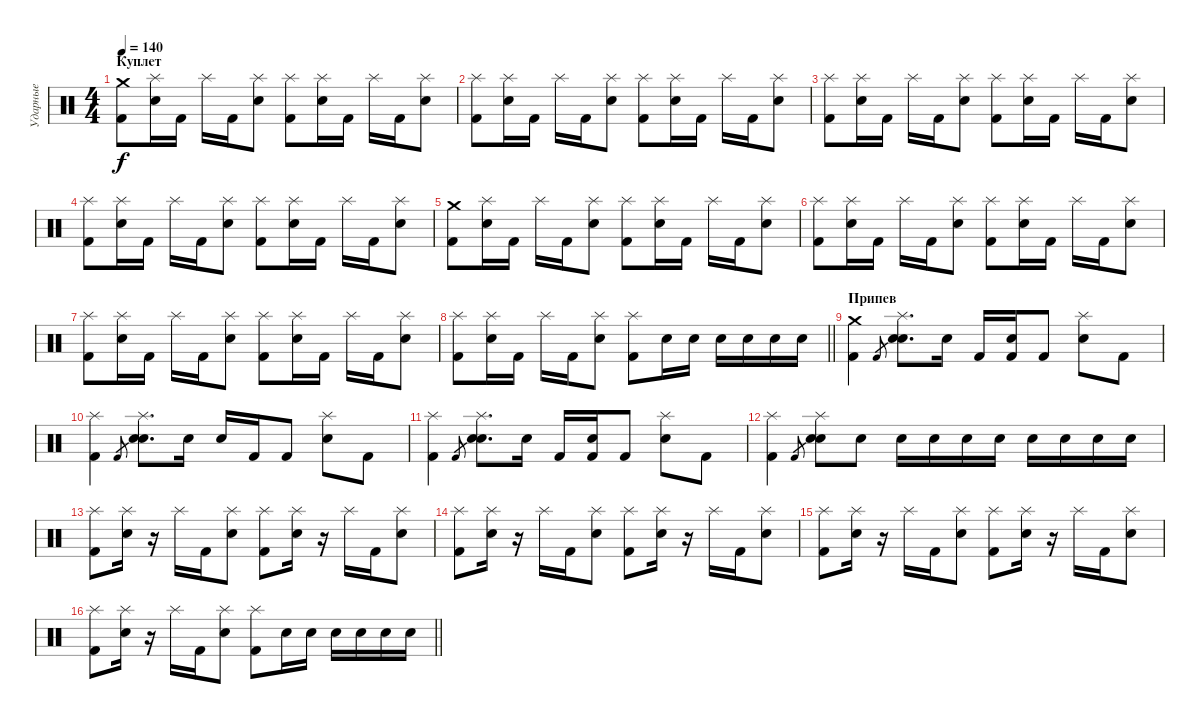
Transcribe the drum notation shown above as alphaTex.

\track ("Ударные" "Ударные") {instrument percussion}
\staff {score}
\articulation defaults
\ts (4 4)
\section ("" "Куплет")
\tempo 140
\clef neutral
\ks c
("Crash medium (hit)" "Kick (hit) 2").8{dy f} ("Splash (hit)" "Electric Snare (hit)").16 "Kick (hit) 2".16 "Splash (hit)".16 "Kick (hit) 2".16 ("Splash (hit)" "Electric Snare (hit)").8 ("Splash (hit)" "Kick (hit) 2").8 ("Splash (hit)" "Electric Snare (hit)").16 "Kick (hit) 2".16 "Splash (hit)".16 "Kick (hit) 2".16 ("Splash (hit)" "Electric Snare (hit)").8 |
("Splash (hit)" "Kick (hit) 2").8 ("Splash (hit)" "Electric Snare (hit)").16 "Kick (hit) 2".16 "Splash (hit)".16 "Kick (hit) 2".16 ("Splash (hit)" "Electric Snare (hit)").8 ("Splash (hit)" "Kick (hit) 2").8 ("Splash (hit)" "Electric Snare (hit)").16 "Kick (hit) 2".16 "Splash (hit)".16 "Kick (hit) 2".16 ("Splash (hit)" "Electric Snare (hit)").8 |
("Splash (hit)" "Kick (hit) 2").8 ("Splash (hit)" "Electric Snare (hit)").16 "Kick (hit) 2".16 "Splash (hit)".16 "Kick (hit) 2".16 ("Splash (hit)" "Electric Snare (hit)").8 ("Splash (hit)" "Kick (hit) 2").8 ("Splash (hit)" "Electric Snare (hit)").16 "Kick (hit) 2".16 "Splash (hit)".16 "Kick (hit) 2".16 ("Splash (hit)" "Electric Snare (hit)").8 |
("Splash (hit)" "Kick (hit) 2").8 ("Splash (hit)" "Electric Snare (hit)").16 "Kick (hit) 2".16 "Splash (hit)".16 "Kick (hit) 2".16 ("Splash (hit)" "Electric Snare (hit)").8 ("Splash (hit)" "Kick (hit) 2").8 ("Splash (hit)" "Electric Snare (hit)").16 "Kick (hit) 2".16 "Splash (hit)".16 "Kick (hit) 2".16 ("Splash (hit)" "Electric Snare (hit)").8 |
("Crash medium (hit)" "Kick (hit) 2").8 ("Splash (hit)" "Electric Snare (hit)").16 "Kick (hit) 2".16 "Splash (hit)".16 "Kick (hit) 2".16 ("Splash (hit)" "Electric Snare (hit)").8 ("Splash (hit)" "Kick (hit) 2").8 ("Splash (hit)" "Electric Snare (hit)").16 "Kick (hit) 2".16 "Splash (hit)".16 "Kick (hit) 2".16 ("Splash (hit)" "Electric Snare (hit)").8 |
("Splash (hit)" "Kick (hit) 2").8 ("Splash (hit)" "Electric Snare (hit)").16 "Kick (hit) 2".16 "Splash (hit)".16 "Kick (hit) 2".16 ("Splash (hit)" "Electric Snare (hit)").8 ("Splash (hit)" "Kick (hit) 2").8 ("Splash (hit)" "Electric Snare (hit)").16 "Kick (hit) 2".16 "Splash (hit)".16 "Kick (hit) 2".16 ("Splash (hit)" "Electric Snare (hit)").8 |
("Splash (hit)" "Kick (hit) 2").8 ("Splash (hit)" "Electric Snare (hit)").16 "Kick (hit) 2".16 "Splash (hit)".16 "Kick (hit) 2".16 ("Splash (hit)" "Electric Snare (hit)").8 ("Splash (hit)" "Kick (hit) 2").8 ("Splash (hit)" "Electric Snare (hit)").16 "Kick (hit) 2".16 "Splash (hit)".16 "Kick (hit) 2".16 ("Splash (hit)" "Electric Snare (hit)").8 |
\barLineRight lightlight
("Splash (hit)" "Kick (hit) 2").8 ("Splash (hit)" "Electric Snare (hit)").16 "Kick (hit) 2".16 "Splash (hit)".16 "Kick (hit) 2".16 ("Splash (hit)" "Electric Snare (hit)").8 ("Splash (hit)" "Kick (hit) 2").8 "Electric Snare (hit)".16 "Electric Snare (hit)".16 "Electric Snare (hit)".16 "Electric Snare (hit)".16 "Electric Snare (hit)".16 "Electric Snare (hit)".16 |
\section ("" "Припев")
("Crash medium (hit)" "Kick (hit) 2").4 "Kick (hit) 2".8{gr} ("Splash (hit)" "Electric Snare (hit)" "Snare (hit) 2").8{d} "Electric Snare (hit)".16 "Kick (hit) 2".16 ("Electric Snare (hit)" "Kick (hit) 2").16 "Kick (hit) 2".8 ("Splash (hit)" "Electric Snare (hit)").8 "Kick (hit) 2".8 |
("Splash (hit)" "Kick (hit) 2").4 "Kick (hit) 2".8{gr} ("Splash (hit)" "Electric Snare (hit)" "Snare (hit) 2").8{d} "Electric Snare (hit)".16 "Electric Snare (hit)".16 "Kick (hit) 2".16 "Kick (hit) 2".8 ("Splash (hit)" "Electric Snare (hit)").8 "Kick (hit) 2".8 |
("Splash (hit)" "Kick (hit) 2").4 "Kick (hit) 2".8{gr} ("Splash (hit)" "Electric Snare (hit)" "Snare (hit) 2").8{d} "Electric Snare (hit)".16 "Kick (hit) 2".16 ("Electric Snare (hit)" "Kick (hit) 2").16 "Kick (hit) 2".8 ("Splash (hit)" "Electric Snare (hit)").8 "Kick (hit) 2".8 |
("Splash (hit)" "Kick (hit) 2").4 "Kick (hit) 2".8{gr} ("Splash (hit)" "Electric Snare (hit)" "Snare (hit) 2").8 "Electric Snare (hit)".8 "Electric Snare (hit)".16 "Electric Snare (hit)".16 "Electric Snare (hit)".16 "Electric Snare (hit)".16 "Electric Snare (hit)".16 "Electric Snare (hit)".16 "Electric Snare (hit)".16 "Electric Snare (hit)".16 |
("Splash (hit)" "Kick (hit) 2").8 ("Splash (hit)" "Electric Snare (hit)").16 r.16 "Splash (hit)".16 "Kick (hit) 2".16 ("Splash (hit)" "Electric Snare (hit)").8 ("Splash (hit)" "Kick (hit) 2").8 ("Splash (hit)" "Electric Snare (hit)").16 r.16 "Splash (hit)".16 "Kick (hit) 2".16 ("Splash (hit)" "Electric Snare (hit)").8 |
("Splash (hit)" "Kick (hit) 2").8 ("Splash (hit)" "Electric Snare (hit)").16 r.16 "Splash (hit)".16 "Kick (hit) 2".16 ("Splash (hit)" "Electric Snare (hit)").8 ("Splash (hit)" "Kick (hit) 2").8 ("Splash (hit)" "Electric Snare (hit)").16 r.16 "Splash (hit)".16 "Kick (hit) 2".16 ("Splash (hit)" "Electric Snare (hit)").8 |
("Splash (hit)" "Kick (hit) 2").8 ("Splash (hit)" "Electric Snare (hit)").16 r.16 "Splash (hit)".16 "Kick (hit) 2".16 ("Splash (hit)" "Electric Snare (hit)").8 ("Splash (hit)" "Kick (hit) 2").8 ("Splash (hit)" "Electric Snare (hit)").16 r.16 "Splash (hit)".16 "Kick (hit) 2".16 ("Splash (hit)" "Electric Snare (hit)").8 |
\barLineRight lightlight
("Splash (hit)" "Kick (hit) 2").8 ("Splash (hit)" "Electric Snare (hit)").16 r.16 "Splash (hit)".16 "Kick (hit) 2".16 ("Splash (hit)" "Electric Snare (hit)").8 ("Splash (hit)" "Kick (hit) 2").8 "Electric Snare (hit)".16 "Electric Snare (hit)".16 "Electric Snare (hit)".16 "Electric Snare (hit)".16 "Electric Snare (hit)".16 "Electric Snare (hit)".16
